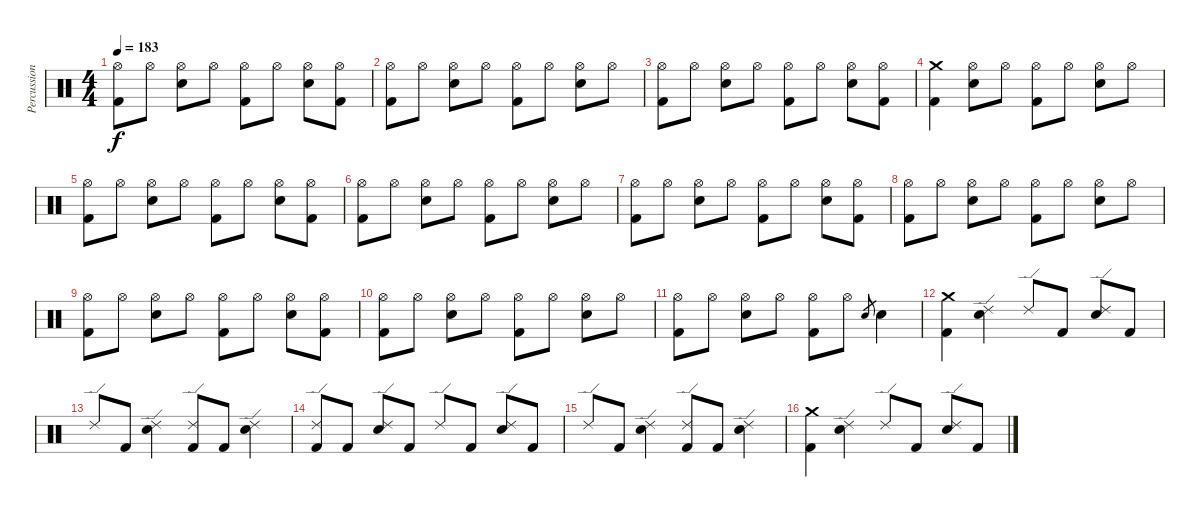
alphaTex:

\track ("Percussion" "Percussion") {instrument percussion}
\staff {score}
\articulation defaults
\ts (4 4)
\tempo 183
\clef neutral
\ks c
("Hi-Hat (open)" "Kick (hit) 2").8{dy f} "Hi-Hat (open)".8 ("Hi-Hat (open)" "Snare (hit) 2").8 "Hi-Hat (open)".8 ("Hi-Hat (open)" "Kick (hit) 2").8 "Hi-Hat (open)".8 ("Hi-Hat (open)" "Snare (hit) 2").8 ("Hi-Hat (open)" "Kick (hit) 2").8 |
("Hi-Hat (open)" "Kick (hit) 2").8 "Hi-Hat (open)".8 ("Hi-Hat (open)" "Snare (hit) 2").8 "Hi-Hat (open)".8 ("Hi-Hat (open)" "Kick (hit) 2").8 "Hi-Hat (open)".8 ("Hi-Hat (open)" "Snare (hit) 2").8 "Hi-Hat (open)".8 |
("Hi-Hat (open)" "Kick (hit) 2").8 "Hi-Hat (open)".8 ("Hi-Hat (open)" "Snare (hit) 2").8 "Hi-Hat (open)".8 ("Hi-Hat (open)" "Kick (hit) 2").8 "Hi-Hat (open)".8 ("Hi-Hat (open)" "Snare (hit) 2").8 ("Hi-Hat (open)" "Kick (hit) 2").8 |
("Crash medium (hit)" "Kick (hit) 2").4 ("Hi-Hat (open)" "Snare (hit) 2").8 "Hi-Hat (open)".8 ("Hi-Hat (open)" "Kick (hit) 2").8 "Hi-Hat (open)".8 ("Hi-Hat (open)" "Snare (hit) 2").8 "Hi-Hat (open)".8 |
("Hi-Hat (open)" "Kick (hit) 2").8 "Hi-Hat (open)".8 ("Hi-Hat (open)" "Snare (hit) 2").8 "Hi-Hat (open)".8 ("Hi-Hat (open)" "Kick (hit) 2").8 "Hi-Hat (open)".8 ("Hi-Hat (open)" "Snare (hit) 2").8 ("Hi-Hat (open)" "Kick (hit) 2").8 |
("Hi-Hat (open)" "Kick (hit) 2").8 "Hi-Hat (open)".8 ("Hi-Hat (open)" "Snare (hit) 2").8 "Hi-Hat (open)".8 ("Hi-Hat (open)" "Kick (hit) 2").8 "Hi-Hat (open)".8 ("Hi-Hat (open)" "Snare (hit) 2").8 "Hi-Hat (open)".8 |
("Hi-Hat (open)" "Kick (hit) 2").8 "Hi-Hat (open)".8 ("Hi-Hat (open)" "Snare (hit) 2").8 "Hi-Hat (open)".8 ("Hi-Hat (open)" "Kick (hit) 2").8 "Hi-Hat (open)".8 ("Hi-Hat (open)" "Snare (hit) 2").8 ("Hi-Hat (open)" "Kick (hit) 2").8 |
("Hi-Hat (open)" "Kick (hit) 2").8 "Hi-Hat (open)".8 ("Hi-Hat (open)" "Snare (hit) 2").8 "Hi-Hat (open)".8 ("Hi-Hat (open)" "Kick (hit) 2").8 "Hi-Hat (open)".8 ("Hi-Hat (open)" "Snare (hit) 2").8 "Hi-Hat (open)".8 |
("Hi-Hat (open)" "Kick (hit) 2").8 "Hi-Hat (open)".8 ("Hi-Hat (open)" "Snare (hit) 2").8 "Hi-Hat (open)".8 ("Hi-Hat (open)" "Kick (hit) 2").8 "Hi-Hat (open)".8 ("Hi-Hat (open)" "Snare (hit) 2").8 ("Hi-Hat (open)" "Kick (hit) 2").8 |
("Hi-Hat (open)" "Kick (hit) 2").8 "Hi-Hat (open)".8 ("Hi-Hat (open)" "Snare (hit) 2").8 "Hi-Hat (open)".8 ("Hi-Hat (open)" "Kick (hit) 2").8 "Hi-Hat (open)".8 ("Hi-Hat (open)" "Snare (hit) 2").8 "Hi-Hat (open)".8 |
("Hi-Hat (open)" "Kick (hit) 2").8 "Hi-Hat (open)".8 ("Hi-Hat (open)" "Snare (hit) 2").8 "Hi-Hat (open)".8 ("Hi-Hat (open)" "Kick (hit) 2").8 "Hi-Hat (open)".8 "Snare (hit) 2".8{gr} "Snare (hit) 2".4 |
("Crash medium (hit)" "Kick (hit) 2").4 ("Ride (edge) 2" "Snare (hit) 2").4 "Ride (edge) 2".8 "Kick (hit) 2".8 ("Ride (edge) 2" "Snare (hit) 2").8 "Kick (hit) 2".8 |
"Ride (edge) 2".8 "Kick (hit) 2".8 ("Ride (edge) 2" "Snare (hit) 2").4 ("Ride (edge) 2" "Kick (hit) 2").8 "Kick (hit) 2".8 ("Ride (edge) 2" "Snare (hit) 2").4 |
("Ride (edge) 2" "Kick (hit) 2").8 "Kick (hit) 2".8 ("Ride (edge) 2" "Snare (hit) 2").8 "Kick (hit) 2".8 "Ride (edge) 2".8 "Kick (hit) 2".8 ("Ride (edge) 2" "Snare (hit) 2").8 "Kick (hit) 2".8 |
"Ride (edge) 2".8 "Kick (hit) 2".8 ("Ride (edge) 2" "Snare (hit) 2").4 ("Ride (edge) 2" "Kick (hit) 2").8 "Kick (hit) 2".8 ("Ride (edge) 2" "Snare (hit) 2").4 |
("Crash medium (hit)" "Kick (hit) 2").4 ("Ride (edge) 2" "Snare (hit) 2").4 "Ride (edge) 2".8 "Kick (hit) 2".8 ("Ride (edge) 2" "Snare (hit) 2").8 "Kick (hit) 2".8
